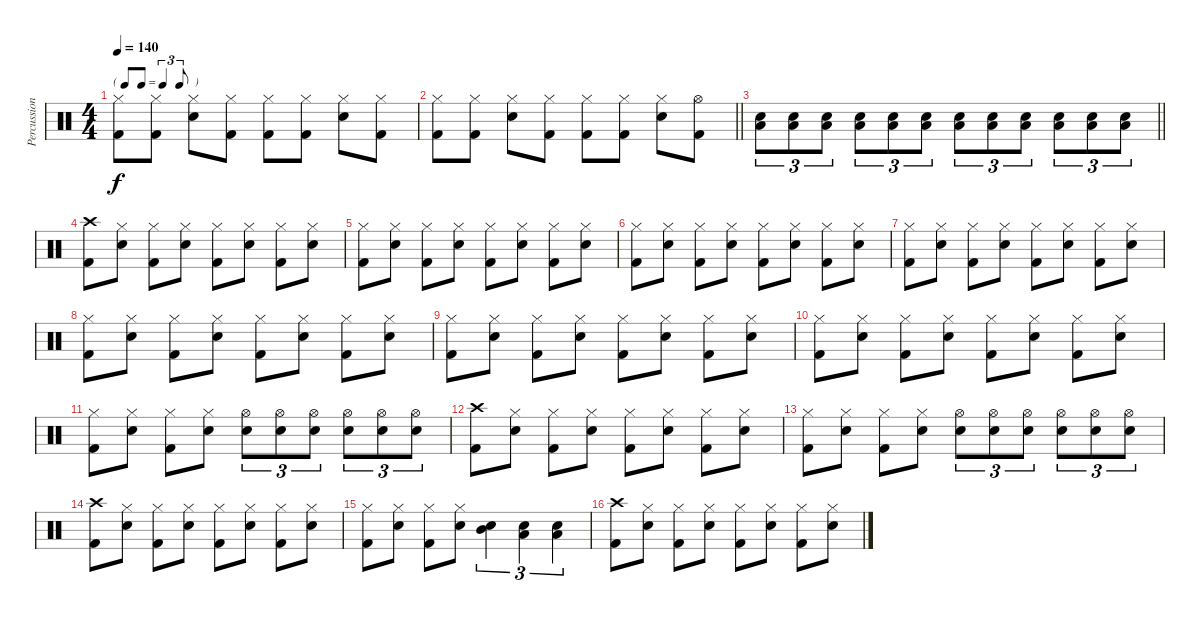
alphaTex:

\track ("Percussion" "Percussion") {instrument percussion}
\staff {score}
\articulation defaults
\ts (4 4)
\tf triplet8th
\tempo 140
\clef neutral
\ks c
("Hi-Hat (closed)" "Kick (hit) 2").8{dy f} ("Hi-Hat (closed)" "Kick (hit) 2").8 ("Hi-Hat (closed)" "Snare (hit) 2").8 ("Hi-Hat (closed)" "Kick (hit) 2").8 ("Hi-Hat (closed)" "Kick (hit) 2").8 ("Hi-Hat (closed)" "Kick (hit) 2").8 ("Hi-Hat (closed)" "Snare (hit) 2").8 ("Hi-Hat (closed)" "Kick (hit) 2").8 |
\barLineRight lightlight
("Hi-Hat (closed)" "Kick (hit) 2").8 ("Hi-Hat (closed)" "Kick (hit) 2").8 ("Hi-Hat (closed)" "Snare (hit) 2").8 ("Hi-Hat (closed)" "Kick (hit) 2").8 ("Hi-Hat (closed)" "Kick (hit) 2").8 ("Hi-Hat (closed)" "Kick (hit) 2").8 ("Hi-Hat (closed)" "Snare (hit) 2").8 ("Hi-Hat (open)" "Kick (hit) 2").8 |
\barLineRight lightlight
("Snare (hit) 2" "Low Floor Tom (hit)").8{tu (3 2)} ("Snare (hit) 2" "Low Floor Tom (hit)").8{tu (3 2)} ("Snare (hit) 2" "Low Floor Tom (hit)").8{tu (3 2)} ("Snare (hit) 2" "Low Floor Tom (hit)").8{tu (3 2)} ("Snare (hit) 2" "Low Floor Tom (hit)").8{tu (3 2)} ("Snare (hit) 2" "Low Floor Tom (hit)").8{tu (3 2)} ("Snare (hit) 2" "Low Floor Tom (hit)").8{tu (3 2)} ("Snare (hit) 2" "Low Floor Tom (hit)").8{tu (3 2)} ("Snare (hit) 2" "Low Floor Tom (hit)").8{tu (3 2)} ("Snare (hit) 2" "Low Floor Tom (hit)").8{tu (3 2)} ("Snare (hit) 2" "Low Floor Tom (hit)").8{tu (3 2)} ("Snare (hit) 2" "Low Floor Tom (hit)").8{tu (3 2)} |
("Crash high (hit)" "Kick (hit) 2").8 ("Hi-Hat (closed)" "Snare (hit) 2").8 ("Hi-Hat (closed)" "Kick (hit) 2").8 ("Hi-Hat (closed)" "Snare (hit) 2").8 ("Hi-Hat (closed)" "Kick (hit) 2").8 ("Hi-Hat (closed)" "Snare (hit) 2").8 ("Hi-Hat (closed)" "Kick (hit) 2").8 ("Hi-Hat (closed)" "Snare (hit) 2").8 |
("Hi-Hat (closed)" "Kick (hit) 2").8 ("Hi-Hat (closed)" "Snare (hit) 2").8 ("Hi-Hat (closed)" "Kick (hit) 2").8 ("Hi-Hat (closed)" "Snare (hit) 2").8 ("Hi-Hat (closed)" "Kick (hit) 2").8 ("Hi-Hat (closed)" "Snare (hit) 2").8 ("Hi-Hat (closed)" "Kick (hit) 2").8 ("Hi-Hat (closed)" "Snare (hit) 2").8 |
("Hi-Hat (closed)" "Kick (hit) 2").8 ("Hi-Hat (closed)" "Snare (hit) 2").8 ("Hi-Hat (closed)" "Kick (hit) 2").8 ("Hi-Hat (closed)" "Snare (hit) 2").8 ("Hi-Hat (closed)" "Kick (hit) 2").8 ("Hi-Hat (closed)" "Snare (hit) 2").8 ("Hi-Hat (closed)" "Kick (hit) 2").8 ("Hi-Hat (closed)" "Snare (hit) 2").8 |
("Hi-Hat (closed)" "Kick (hit) 2").8 ("Hi-Hat (closed)" "Snare (hit) 2").8 ("Hi-Hat (closed)" "Kick (hit) 2").8 ("Hi-Hat (closed)" "Snare (hit) 2").8 ("Hi-Hat (closed)" "Kick (hit) 2").8 ("Hi-Hat (closed)" "Snare (hit) 2").8 ("Hi-Hat (closed)" "Kick (hit) 2").8 ("Hi-Hat (closed)" "Snare (hit) 2").8 |
("Hi-Hat (closed)" "Kick (hit) 2").8 ("Hi-Hat (closed)" "Snare (hit) 2").8 ("Hi-Hat (closed)" "Kick (hit) 2").8 ("Hi-Hat (closed)" "Snare (hit) 2").8 ("Hi-Hat (closed)" "Kick (hit) 2").8 ("Hi-Hat (closed)" "Snare (hit) 2").8 ("Hi-Hat (closed)" "Kick (hit) 2").8 ("Hi-Hat (closed)" "Snare (hit) 2").8 |
("Hi-Hat (closed)" "Kick (hit) 2").8 ("Hi-Hat (closed)" "Snare (hit) 2").8 ("Hi-Hat (closed)" "Kick (hit) 2").8 ("Hi-Hat (closed)" "Snare (hit) 2").8 ("Hi-Hat (closed)" "Kick (hit) 2").8 ("Hi-Hat (closed)" "Snare (hit) 2").8 ("Hi-Hat (closed)" "Kick (hit) 2").8 ("Hi-Hat (closed)" "Snare (hit) 2").8 |
("Hi-Hat (closed)" "Kick (hit) 2").8 ("Hi-Hat (closed)" "Snare (hit) 2").8 ("Hi-Hat (closed)" "Kick (hit) 2").8 ("Hi-Hat (closed)" "Snare (hit) 2").8 ("Hi-Hat (closed)" "Kick (hit) 2").8 ("Hi-Hat (closed)" "Snare (hit) 2").8 ("Hi-Hat (closed)" "Kick (hit) 2").8 ("Hi-Hat (closed)" "Snare (hit) 2").8 |
("Hi-Hat (closed)" "Kick (hit) 2").8 ("Hi-Hat (closed)" "Snare (hit) 2").8 ("Hi-Hat (closed)" "Kick (hit) 2").8 ("Hi-Hat (closed)" "Snare (hit) 2").8 ("Hi-Hat (open)" "Snare (hit) 2").8{tu (3 2)} ("Hi-Hat (open)" "Snare (hit) 2").8{tu (3 2)} ("Hi-Hat (open)" "Snare (hit) 2").8{tu (3 2)} ("Hi-Hat (open)" "Snare (hit) 2").8{tu (3 2)} ("Hi-Hat (open)" "Snare (hit) 2").8{tu (3 2)} ("Hi-Hat (open)" "Snare (hit) 2").8{tu (3 2)} |
("Crash high (hit)" "Kick (hit) 2").8 ("Hi-Hat (closed)" "Snare (hit) 2").8 ("Hi-Hat (closed)" "Kick (hit) 2").8 ("Hi-Hat (closed)" "Snare (hit) 2").8 ("Hi-Hat (closed)" "Kick (hit) 2").8 ("Hi-Hat (closed)" "Snare (hit) 2").8 ("Hi-Hat (closed)" "Kick (hit) 2").8 ("Hi-Hat (closed)" "Snare (hit) 2").8 |
("Hi-Hat (closed)" "Kick (hit) 2").8 ("Hi-Hat (closed)" "Snare (hit) 2").8 ("Hi-Hat (closed)" "Kick (hit) 2").8 ("Hi-Hat (closed)" "Snare (hit) 2").8 ("Hi-Hat (open)" "Snare (hit) 2").8{tu (3 2)} ("Hi-Hat (open)" "Snare (hit) 2").8{tu (3 2)} ("Hi-Hat (open)" "Snare (hit) 2").8{tu (3 2)} ("Hi-Hat (open)" "Snare (hit) 2").8{tu (3 2)} ("Hi-Hat (open)" "Snare (hit) 2").8{tu (3 2)} ("Hi-Hat (open)" "Snare (hit) 2").8{tu (3 2)} |
("Crash high (hit)" "Kick (hit) 2").8 ("Hi-Hat (closed)" "Snare (hit) 2").8 ("Hi-Hat (closed)" "Kick (hit) 2").8 ("Hi-Hat (closed)" "Snare (hit) 2").8 ("Hi-Hat (closed)" "Kick (hit) 2").8 ("Hi-Hat (closed)" "Snare (hit) 2").8 ("Hi-Hat (closed)" "Kick (hit) 2").8 ("Hi-Hat (closed)" "Snare (hit) 2").8 |
("Hi-Hat (closed)" "Kick (hit) 2").8 ("Hi-Hat (closed)" "Snare (hit) 2").8 ("Hi-Hat (closed)" "Kick (hit) 2").8 ("Hi-Hat (closed)" "Snare (hit) 2").8 ("Mid Tom (hit)" "Snare (hit) 2").4{tu (3 2)} ("Low Tom (hit)" "Snare (hit) 2").4{tu (3 2)} ("Low Floor Tom (hit)" "Snare (hit) 2").4{tu (3 2)} |
("Crash high (hit)" "Kick (hit) 2").8 ("Hi-Hat (closed)" "Snare (hit) 2").8 ("Hi-Hat (closed)" "Kick (hit) 2").8 ("Hi-Hat (closed)" "Snare (hit) 2").8 ("Hi-Hat (closed)" "Kick (hit) 2").8 ("Hi-Hat (closed)" "Snare (hit) 2").8 ("Hi-Hat (closed)" "Kick (hit) 2").8 ("Hi-Hat (closed)" "Snare (hit) 2").8
